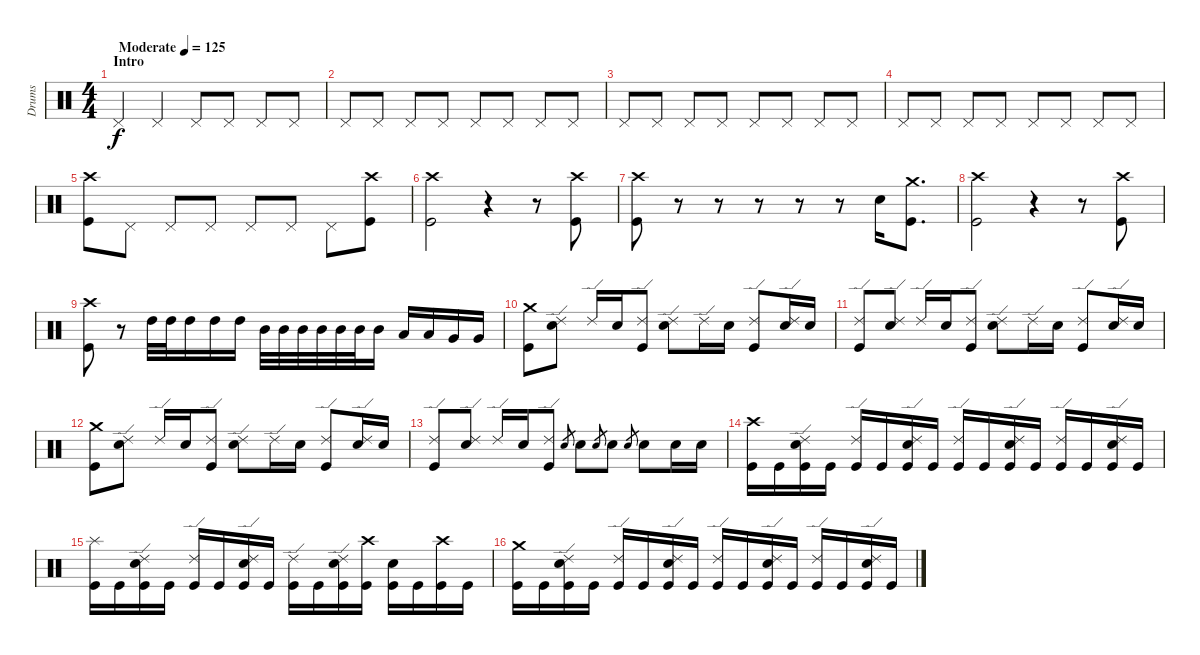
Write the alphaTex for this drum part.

\track ("Drums" "Drums") {instrument percussion}
\staff {score}
\articulation defaults
\ts (4 4)
\section ("" "Intro")
\tempo (125 "Moderate")
\clef neutral
\ks c "Pedal Hi-Hat (hit)".4{dy f} "Pedal Hi-Hat (hit)".4 "Pedal Hi-Hat (hit)".8 "Pedal Hi-Hat (hit)".8 "Pedal Hi-Hat (hit)".8 "Pedal Hi-Hat (hit)".8
|
"Pedal Hi-Hat (hit)".8 "Pedal Hi-Hat (hit)".8 "Pedal Hi-Hat (hit)".8 "Pedal Hi-Hat (hit)".8 "Pedal Hi-Hat (hit)".8 "Pedal Hi-Hat (hit)".8 "Pedal Hi-Hat (hit)".8 "Pedal Hi-Hat (hit)".8 |
"Pedal Hi-Hat (hit)".8 "Pedal Hi-Hat (hit)".8 "Pedal Hi-Hat (hit)".8 "Pedal Hi-Hat (hit)".8 "Pedal Hi-Hat (hit)".8 "Pedal Hi-Hat (hit)".8 "Pedal Hi-Hat (hit)".8 "Pedal Hi-Hat (hit)".8 |
"Pedal Hi-Hat (hit)".8 "Pedal Hi-Hat (hit)".8 "Pedal Hi-Hat (hit)".8 "Pedal Hi-Hat (hit)".8 "Pedal Hi-Hat (hit)".8 "Pedal Hi-Hat (hit)".8 "Pedal Hi-Hat (hit)".8 "Pedal Hi-Hat (hit)".8 |
("Crash high (hit)" "Kick (hit)").8 "Pedal Hi-Hat (hit)".8 "Pedal Hi-Hat (hit)".8 "Pedal Hi-Hat (hit)".8 "Pedal Hi-Hat (hit)".8 "Pedal Hi-Hat (hit)".8 "Pedal Hi-Hat (hit)".8 ("Crash high (hit)" "Kick (hit)").8 |
("Crash high (hit)" "Kick (hit)").2 r.4 r.8 ("Crash high (hit)" "Kick (hit)").8 |
("Crash high (hit)" "Kick (hit)").8 r.8 r.8 r.8 r.8 r.8 "Snare (hit) 2".16 ("Crash medium (hit)" "Kick (hit)").8{d} |
("Crash high (hit)" "Kick (hit)").2 r.4 r.8 ("Crash high (hit)" "Kick (hit)").8 |
("Crash high (hit)" "Kick (hit)").8 r.8 "High Tom (hit)".32 "High Tom (hit)".32 "High Tom (hit)".16 "High Tom (hit)".16 "High Tom (hit)".16 "Mid Tom (hit)".32 "Mid Tom (hit)".32 "Mid Tom (hit)".32 "Mid Tom (hit)".32 "Mid Tom (hit)".32 "Mid Tom (hit)".32 "Mid Tom (hit)".16 "Low Tom (hit)".16 "Low Tom (hit)".16 "Very Low Tom (hit)".16 "Very Low Tom (hit)".16 |
("Crash medium (hit)" "Kick (hit)").8 ("Ride (edge) 2" "Snare (hit) 2").8 "Ride (edge) 2".16 "Snare (hit) 2".16 ("Ride (edge) 2" "Kick (hit)").8 ("Ride (edge) 2" "Snare (hit) 2").8 "Ride (edge) 2".16 "Snare (hit) 2".16 ("Ride (edge) 2" "Kick (hit)").8 ("Ride (edge) 2" "Snare (hit) 2").16 "Snare (hit) 2".16 |
("Ride (edge) 2" "Kick (hit)").8 ("Ride (edge) 2" "Snare (hit) 2").8 "Ride (edge) 2".16 "Snare (hit) 2".16 ("Ride (edge) 2" "Kick (hit)").8 ("Ride (edge) 2" "Snare (hit) 2").8 "Ride (edge) 2".16 "Snare (hit) 2".16 ("Ride (edge) 2" "Kick (hit)").8 ("Ride (edge) 2" "Snare (hit) 2").16 "Snare (hit) 2".16 |
("Crash medium (hit)" "Kick (hit)").8 ("Ride (edge) 2" "Snare (hit) 2").8 "Ride (edge) 2".16 "Snare (hit) 2".16 ("Ride (edge) 2" "Kick (hit)").8 ("Ride (edge) 2" "Snare (hit) 2").8 "Ride (edge) 2".16 "Snare (hit) 2".16 ("Ride (edge) 2" "Kick (hit)").8 ("Ride (edge) 2" "Snare (hit) 2").16 "Snare (hit) 2".16 |
("Ride (edge) 2" "Kick (hit)").8 ("Ride (edge) 2" "Snare (hit) 2").8 "Ride (edge) 2".16 "Snare (hit) 2".16 ("Ride (edge) 2" "Kick (hit)").8 "Snare (hit) 2".8{gr} "Snare (hit) 2".8 "Snare (hit) 2".8{gr} "Snare (hit) 2".8 "Snare (hit) 2".8{gr} "Snare (hit) 2".8 "Snare (hit) 2".16 "Snare (hit) 2".16 |
("Crash high (hit)" "Kick (hit)").16 "Kick (hit)".16 ("Ride (edge) 2" "Snare (hit) 2" "Kick (hit)").16 "Kick (hit)".16 ("Ride (edge) 2" "Kick (hit)").16 "Kick (hit)".16 ("Ride (edge) 2" "Snare (hit) 2" "Kick (hit)").16 "Kick (hit)".16 ("Ride (edge) 2" "Kick (hit)").16 "Kick (hit)".16 ("Ride (edge) 2" "Snare (hit) 2" "Kick (hit)").16 "Kick (hit)".16 ("Ride (edge) 2" "Kick (hit)").16 "Kick (hit)".16 ("Ride (edge) 2" "Snare (hit) 2" "Kick (hit)").16 "Kick (hit)".16 |
("Splash (hit)" "Kick (hit)").16 "Kick (hit)".16 ("Ride (edge) 2" "Snare (hit) 2" "Kick (hit)").16 "Kick (hit)".16 ("Ride (edge) 2" "Kick (hit)").16 "Kick (hit)".16 ("Ride (edge) 2" "Snare (hit) 2" "Kick (hit)").16 "Kick (hit)".16 ("Ride (edge) 2" "Kick (hit)").16 "Kick (hit)".16 ("Ride (edge) 2" "Snare (hit) 2" "Kick (hit)").16 ("Crash high (hit)" "Kick (hit)").16 ("Snare (hit) 2" "Kick (hit)").16 "Kick (hit)".16 ("Crash high (hit)" "Kick (hit)").16 "Kick (hit)".16 |
("Crash medium (hit)" "Kick (hit)").16 "Kick (hit)".16 ("Ride (edge) 2" "Snare (hit) 2" "Kick (hit)").16 "Kick (hit)".16 ("Ride (edge) 2" "Kick (hit)").16 "Kick (hit)".16 ("Ride (edge) 2" "Snare (hit) 2" "Kick (hit)").16 "Kick (hit)".16 ("Ride (edge) 2" "Kick (hit)").16 "Kick (hit)".16 ("Ride (edge) 2" "Snare (hit) 2" "Kick (hit)").16 "Kick (hit)".16 ("Ride (edge) 2" "Kick (hit)").16 "Kick (hit)".16 ("Ride (edge) 2" "Snare (hit) 2" "Kick (hit)").16 "Kick (hit)".16
